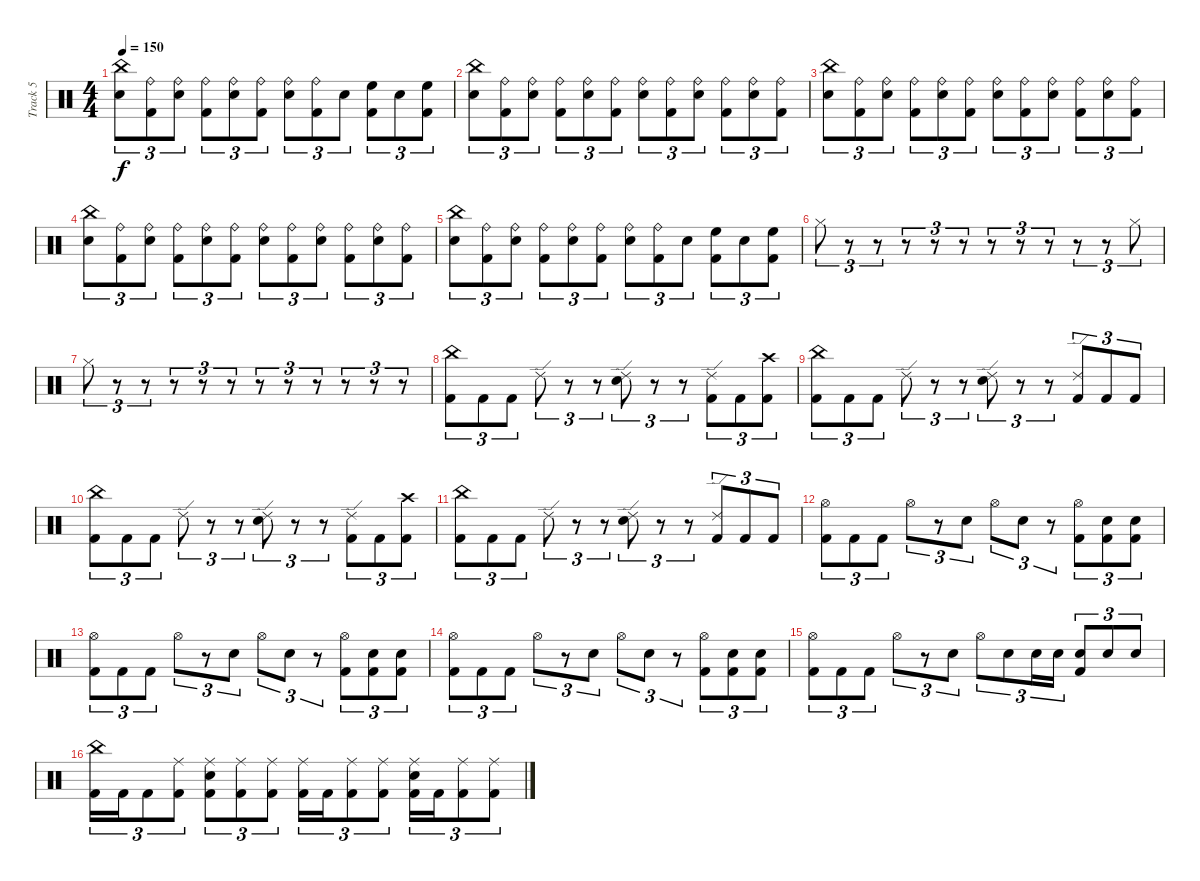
\track ("Track 5" "Track 5") {instrument percussion}
\staff {score}
\articulation defaults
\ts (4 4)
\tempo 150
\clef neutral
\ks c
("China (hit)" "Electric Snare (hit)").8{tu (3 2) dy f} ("Ride (bell)" "Kick (hit) 2").8{tu (3 2)} ("Ride (bell)" "Electric Snare (hit)").8{tu (3 2)} ("Ride (bell)" "Kick (hit) 2").8{tu (3 2)} ("Ride (bell)" "Electric Snare (hit)").8{tu (3 2)} ("Ride (bell)" "Kick (hit) 2").8{tu (3 2)} ("Ride (bell)" "Electric Snare (hit)").8{tu (3 2)} ("Ride (bell)" "Kick (hit) 2").8{tu (3 2)} "Electric Snare (hit)".8{tu (3 2)} ("High Floor Tom (hit)" "Kick (hit) 2").8{tu (3 2)} "Electric Snare (hit)".8{tu (3 2)} ("High Floor Tom (hit)" "Kick (hit) 2").8{tu (3 2)} |
("China (hit)" "Electric Snare (hit)").8{tu (3 2)} ("Ride (bell)" "Kick (hit) 2").8{tu (3 2)} ("Ride (bell)" "Electric Snare (hit)").8{tu (3 2)} ("Ride (bell)" "Kick (hit) 2").8{tu (3 2)} ("Ride (bell)" "Electric Snare (hit)").8{tu (3 2)} ("Ride (bell)" "Kick (hit) 2").8{tu (3 2)} ("Ride (bell)" "Electric Snare (hit)").8{tu (3 2)} ("Ride (bell)" "Kick (hit) 2").8{tu (3 2)} ("Ride (bell)" "Electric Snare (hit)").8{tu (3 2)} ("Ride (bell)" "Kick (hit) 2").8{tu (3 2)} ("Ride (bell)" "Electric Snare (hit)").8{tu (3 2)} ("Ride (bell)" "Kick (hit) 2").8{tu (3 2)} |
("China (hit)" "Electric Snare (hit)").8{tu (3 2)} ("Ride (bell)" "Kick (hit) 2").8{tu (3 2)} ("Ride (bell)" "Electric Snare (hit)").8{tu (3 2)} ("Ride (bell)" "Kick (hit) 2").8{tu (3 2)} ("Ride (bell)" "Electric Snare (hit)").8{tu (3 2)} ("Ride (bell)" "Kick (hit) 2").8{tu (3 2)} ("Ride (bell)" "Electric Snare (hit)").8{tu (3 2)} ("Ride (bell)" "Kick (hit) 2").8{tu (3 2)} ("Ride (bell)" "Electric Snare (hit)").8{tu (3 2)} ("Ride (bell)" "Kick (hit) 2").8{tu (3 2)} ("Ride (bell)" "Electric Snare (hit)").8{tu (3 2)} ("Ride (bell)" "Kick (hit) 2").8{tu (3 2)} |
("China (hit)" "Electric Snare (hit)").8{tu (3 2)} ("Ride (bell)" "Kick (hit) 2").8{tu (3 2)} ("Ride (bell)" "Electric Snare (hit)").8{tu (3 2)} ("Ride (bell)" "Kick (hit) 2").8{tu (3 2)} ("Ride (bell)" "Electric Snare (hit)").8{tu (3 2)} ("Ride (bell)" "Kick (hit) 2").8{tu (3 2)} ("Ride (bell)" "Electric Snare (hit)").8{tu (3 2)} ("Ride (bell)" "Kick (hit) 2").8{tu (3 2)} ("Ride (bell)" "Electric Snare (hit)").8{tu (3 2)} ("Ride (bell)" "Kick (hit) 2").8{tu (3 2)} ("Ride (bell)" "Electric Snare (hit)").8{tu (3 2)} ("Ride (bell)" "Kick (hit) 2").8{tu (3 2)} |
("China (hit)" "Electric Snare (hit)").8{tu (3 2)} ("Ride (bell)" "Kick (hit) 2").8{tu (3 2)} ("Ride (bell)" "Electric Snare (hit)").8{tu (3 2)} ("Ride (bell)" "Kick (hit) 2").8{tu (3 2)} ("Ride (bell)" "Electric Snare (hit)").8{tu (3 2)} ("Ride (bell)" "Kick (hit) 2").8{tu (3 2)} ("Ride (bell)" "Electric Snare (hit)").8{tu (3 2)} ("Ride (bell)" "Kick (hit) 2").8{tu (3 2)} "Electric Snare (hit)".8{tu (3 2)} ("High Floor Tom (hit)" "Kick (hit) 2").8{tu (3 2)} "Electric Snare (hit)".8{tu (3 2)} ("High Floor Tom (hit)" "Kick (hit) 2").8{tu (3 2)} |
"Hi-Hat (closed)".8{tu (3 2)} r.8{tu (3 2)} r.8{tu (3 2)} r.8{tu (3 2)} r.8{tu (3 2)} r.8{tu (3 2)} r.8{tu (3 2)} r.8{tu (3 2)} r.8{tu (3 2)} r.8{tu (3 2)} r.8{tu (3 2)} "Hi-Hat (closed)".8{tu (3 2)} |
"Hi-Hat (closed)".8{tu (3 2)} r.8{tu (3 2)} r.8{tu (3 2)} r.8{tu (3 2)} r.8{tu (3 2)} r.8{tu (3 2)} r.8{tu (3 2)} r.8{tu (3 2)} r.8{tu (3 2)} r.8{tu (3 2)} r.8{tu (3 2)} r.8{tu (3 2)} |
("China (hit)" "Kick (hit) 2").8{tu (3 2)} "Kick (hit) 2".8{tu (3 2)} "Kick (hit) 2".8{tu (3 2)} "Ride (edge) 2".8{tu (3 2)} r.8{tu (3 2)} r.8{tu (3 2)} ("Ride (edge) 2" "Electric Snare (hit)").8{tu (3 2)} r.8{tu (3 2)} r.8{tu (3 2)} ("Ride (edge) 2" "Kick (hit) 2").8{tu (3 2)} "Kick (hit) 2".8{tu (3 2)} ("Crash high (hit)" "Kick (hit) 2").8{tu (3 2)} |
("China (hit)" "Kick (hit) 2").8{tu (3 2)} "Kick (hit) 2".8{tu (3 2)} "Kick (hit) 2".8{tu (3 2)} "Ride (edge) 2".8{tu (3 2)} r.8{tu (3 2)} r.8{tu (3 2)} ("Ride (edge) 2" "Electric Snare (hit)").8{tu (3 2)} r.8{tu (3 2)} r.8{tu (3 2)} ("Ride (edge) 2" "Kick (hit) 2").8{tu (3 2)} "Kick (hit) 2".8{tu (3 2)} "Kick (hit) 2".8{tu (3 2)} |
("China (hit)" "Kick (hit) 2").8{tu (3 2)} "Kick (hit) 2".8{tu (3 2)} "Kick (hit) 2".8{tu (3 2)} "Ride (edge) 2".8{tu (3 2)} r.8{tu (3 2)} r.8{tu (3 2)} ("Ride (edge) 2" "Electric Snare (hit)").8{tu (3 2)} r.8{tu (3 2)} r.8{tu (3 2)} ("Ride (edge) 2" "Kick (hit) 2").8{tu (3 2)} "Kick (hit) 2".8{tu (3 2)} ("Crash high (hit)" "Kick (hit) 2").8{tu (3 2)} |
("China (hit)" "Kick (hit) 2").8{tu (3 2)} "Kick (hit) 2".8{tu (3 2)} "Kick (hit) 2".8{tu (3 2)} "Ride (edge) 2".8{tu (3 2)} r.8{tu (3 2)} r.8{tu (3 2)} ("Ride (edge) 2" "Electric Snare (hit)").8{tu (3 2)} r.8{tu (3 2)} r.8{tu (3 2)} ("Ride (edge) 2" "Kick (hit) 2").8{tu (3 2)} "Kick (hit) 2".8{tu (3 2)} "Kick (hit) 2".8{tu (3 2)} |
("Hi-Hat (open)" "Kick (hit) 2").8{tu (3 2)} "Kick (hit) 2".8{tu (3 2)} "Kick (hit) 2".8{tu (3 2)} "Hi-Hat (open)".8{tu (3 2)} r.8{tu (3 2)} "Electric Snare (hit)".8{tu (3 2)} "Hi-Hat (open)".8{tu (3 2)} "Electric Snare (hit)".8{tu (3 2)} r.8{tu (3 2)} ("Hi-Hat (open)" "Kick (hit) 2").8{tu (3 2)} ("Electric Snare (hit)" "Kick (hit) 2").8{tu (3 2)} ("Electric Snare (hit)" "Kick (hit) 2").8{tu (3 2)} |
("Hi-Hat (open)" "Kick (hit) 2").8{tu (3 2)} "Kick (hit) 2".8{tu (3 2)} "Kick (hit) 2".8{tu (3 2)} "Hi-Hat (open)".8{tu (3 2)} r.8{tu (3 2)} "Electric Snare (hit)".8{tu (3 2)} "Hi-Hat (open)".8{tu (3 2)} "Electric Snare (hit)".8{tu (3 2)} r.8{tu (3 2)} ("Hi-Hat (open)" "Kick (hit) 2").8{tu (3 2)} ("Electric Snare (hit)" "Kick (hit) 2").8{tu (3 2)} ("Electric Snare (hit)" "Kick (hit) 2").8{tu (3 2)} |
("Hi-Hat (open)" "Kick (hit) 2").8{tu (3 2)} "Kick (hit) 2".8{tu (3 2)} "Kick (hit) 2".8{tu (3 2)} "Hi-Hat (open)".8{tu (3 2)} r.8{tu (3 2)} "Electric Snare (hit)".8{tu (3 2)} "Hi-Hat (open)".8{tu (3 2)} "Electric Snare (hit)".8{tu (3 2)} r.8{tu (3 2)} ("Hi-Hat (open)" "Kick (hit) 2").8{tu (3 2)} ("Electric Snare (hit)" "Kick (hit) 2").8{tu (3 2)} ("Electric Snare (hit)" "Kick (hit) 2").8{tu (3 2)} |
("Hi-Hat (open)" "Kick (hit) 2").8{tu (3 2)} "Kick (hit) 2".8{tu (3 2)} "Kick (hit) 2".8{tu (3 2)} "Hi-Hat (open)".8{tu (3 2)} r.8{tu (3 2)} "Electric Snare (hit)".8{tu (3 2)} "Hi-Hat (open)".8{tu (3 2)} "Electric Snare (hit)".8{tu (3 2)} "Electric Snare (hit)".16{tu (3 2)} "Electric Snare (hit)".16{tu (3 2)} ("Electric Snare (hit)" "Kick (hit) 2").8{tu (3 2)} "Electric Snare (hit)".8{tu (3 2)} "Electric Snare (hit)".8{tu (3 2)} |
("China (hit)" "Kick (hit) 2").16{tu (3 2)} "Kick (hit) 2".16{tu (3 2)} "Kick (hit) 2".8{tu (3 2)} ("Ride (middle)" "Kick (hit) 2").8{tu (3 2)} ("Ride (middle)" "Electric Snare (hit)" "Kick (hit) 2").8{tu (3 2)} ("Ride (middle)" "Kick (hit) 2").8{tu (3 2)} ("Ride (middle)" "Kick (hit) 2").8{tu (3 2)} ("Ride (middle)" "Kick (hit) 2").16{tu (3 2)} "Kick (hit) 2".16{tu (3 2)} ("Ride (middle)" "Kick (hit) 2").8{tu (3 2)} ("Ride (middle)" "Kick (hit) 2").8{tu (3 2)} ("Ride (middle)" "Electric Snare (hit)" "Kick (hit) 2").16{tu (3 2)} "Kick (hit) 2".16{tu (3 2)} ("Ride (middle)" "Kick (hit) 2").8{tu (3 2)} ("Ride (middle)" "Kick (hit) 2").8{tu (3 2)}
